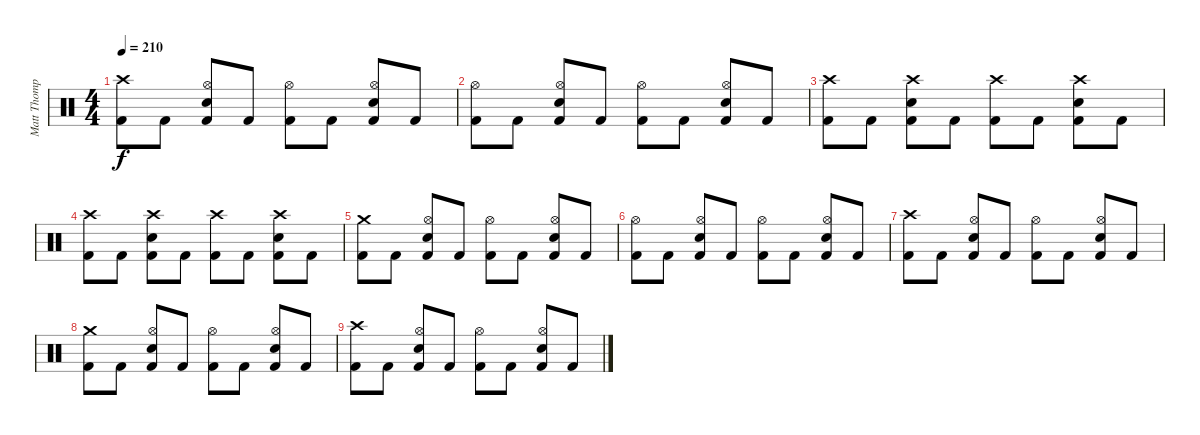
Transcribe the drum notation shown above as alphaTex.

\track ("Matt Thompson" "Matt Thomp") {instrument percussion}
\staff {score}
\articulation defaults
\ts (4 4)
\tempo 210
\clef neutral
\ks c
("Crash high (hit)" "Kick (hit) 2").8{dy f} "Kick (hit) 2".8 ("Hi-Hat (open)" "Electric Snare (hit)" "Kick (hit) 2").8 "Kick (hit) 2".8 ("Hi-Hat (open)" "Kick (hit) 2").8 "Kick (hit) 2".8 ("Hi-Hat (open)" "Electric Snare (hit)" "Kick (hit) 2").8 "Kick (hit) 2".8 |
("Hi-Hat (open)" "Kick (hit) 2").8 "Kick (hit) 2".8 ("Hi-Hat (open)" "Electric Snare (hit)" "Kick (hit) 2").8 "Kick (hit) 2".8 ("Hi-Hat (open)" "Kick (hit) 2").8 "Kick (hit) 2".8 ("Hi-Hat (open)" "Electric Snare (hit)" "Kick (hit) 2").8 "Kick (hit) 2".8 |
("Crash high (hit)" "Kick (hit) 2").8 "Kick (hit) 2".8 ("Crash high (hit)" "Electric Snare (hit)" "Kick (hit) 2").8 "Kick (hit) 2".8 ("Crash high (hit)" "Kick (hit) 2").8 "Kick (hit) 2".8 ("Crash high (hit)" "Electric Snare (hit)" "Kick (hit) 2").8 "Kick (hit) 2".8 |
("Crash high (hit)" "Kick (hit) 2").8 "Kick (hit) 2".8 ("Crash high (hit)" "Electric Snare (hit)" "Kick (hit) 2").8 "Kick (hit) 2".8 ("Crash high (hit)" "Kick (hit) 2").8 "Kick (hit) 2".8 ("Crash high (hit)" "Electric Snare (hit)" "Kick (hit) 2").8 "Kick (hit) 2".8 |
("Crash medium (hit)" "Kick (hit) 2").8 "Kick (hit) 2".8 ("Hi-Hat (open)" "Electric Snare (hit)" "Kick (hit) 2").8 "Kick (hit) 2".8 ("Hi-Hat (open)" "Kick (hit) 2").8 "Kick (hit) 2".8 ("Hi-Hat (open)" "Electric Snare (hit)" "Kick (hit) 2").8 "Kick (hit) 2".8 |
("Hi-Hat (open)" "Kick (hit) 2").8 "Kick (hit) 2".8 ("Hi-Hat (open)" "Electric Snare (hit)" "Kick (hit) 2").8 "Kick (hit) 2".8 ("Hi-Hat (open)" "Kick (hit) 2").8 "Kick (hit) 2".8 ("Hi-Hat (open)" "Electric Snare (hit)" "Kick (hit) 2").8 "Kick (hit) 2".8 |
("Crash high (hit)" "Kick (hit) 2").8 "Kick (hit) 2".8 ("Hi-Hat (open)" "Electric Snare (hit)" "Kick (hit) 2").8 "Kick (hit) 2".8 ("Hi-Hat (open)" "Kick (hit) 2").8 "Kick (hit) 2".8 ("Hi-Hat (open)" "Electric Snare (hit)" "Kick (hit) 2").8 "Kick (hit) 2".8 |
("Crash medium (hit)" "Kick (hit) 2").8 "Kick (hit) 2".8 ("Hi-Hat (open)" "Electric Snare (hit)" "Kick (hit) 2").8 "Kick (hit) 2".8 ("Hi-Hat (open)" "Kick (hit) 2").8 "Kick (hit) 2".8 ("Hi-Hat (open)" "Electric Snare (hit)" "Kick (hit) 2").8 "Kick (hit) 2".8 |
("Crash high (hit)" "Kick (hit) 2").8 "Kick (hit) 2".8 ("Hi-Hat (open)" "Electric Snare (hit)" "Kick (hit) 2").8 "Kick (hit) 2".8 ("Hi-Hat (open)" "Kick (hit) 2").8 "Kick (hit) 2".8 ("Hi-Hat (open)" "Electric Snare (hit)" "Kick (hit) 2").8 "Kick (hit) 2".8
